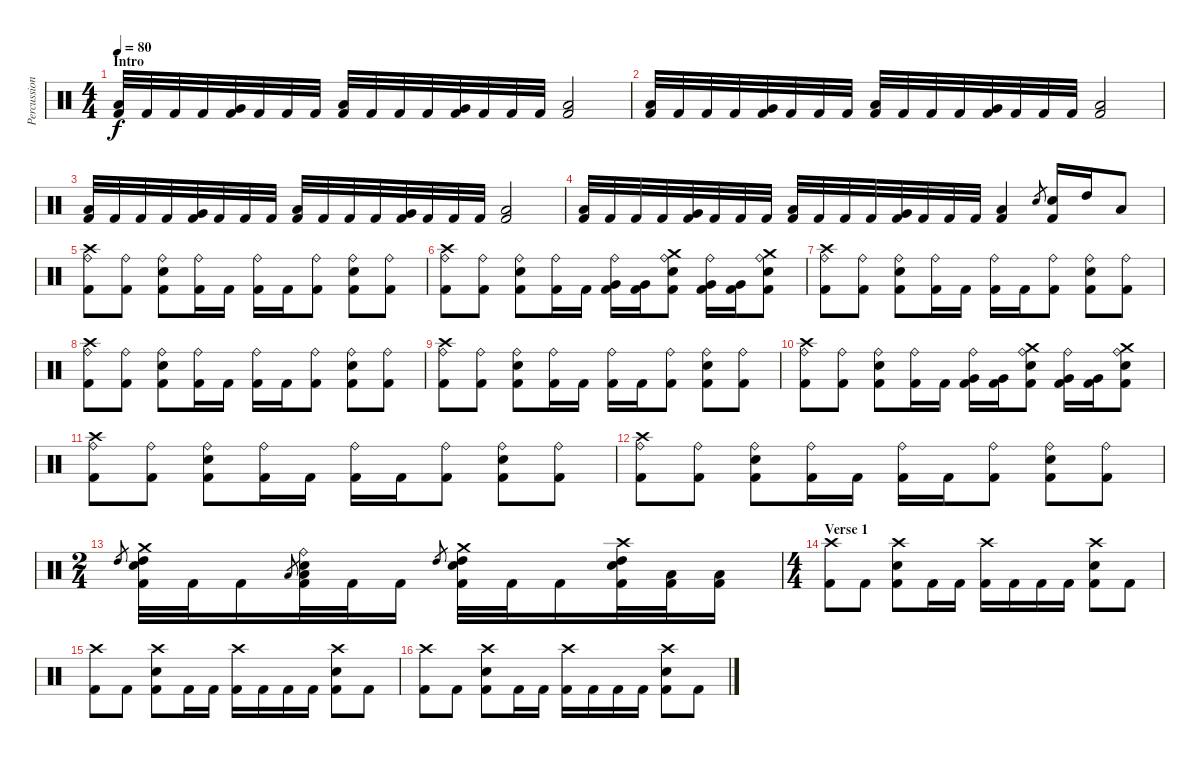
\track ("Percussion" "Percussion") {instrument percussion}
\staff {score}
\articulation defaults
\ts (4 4)
\section ("" "Intro")
\tempo 80
\clef neutral
\ks c
("Low Tom (hit)" "Kick (hit) 2").32{dy f} "Kick (hit) 2".32 "Kick (hit) 2".32 "Kick (hit) 2".32 ("Very Low Tom (hit)" "Kick (hit) 2").32 "Kick (hit) 2".32 "Kick (hit) 2".32 "Kick (hit) 2".32 ("Low Tom (hit)" "Kick (hit) 2").32 "Kick (hit) 2".32 "Kick (hit) 2".32 "Kick (hit) 2".32 ("Very Low Tom (hit)" "Kick (hit) 2").32 "Kick (hit) 2".32 "Kick (hit) 2".32 "Kick (hit) 2".32 ("Low Tom (hit)" "Kick (hit) 2").2 |
("Low Tom (hit)" "Kick (hit) 2").32 "Kick (hit) 2".32 "Kick (hit) 2".32 "Kick (hit) 2".32 ("Very Low Tom (hit)" "Kick (hit) 2").32 "Kick (hit) 2".32 "Kick (hit) 2".32 "Kick (hit) 2".32 ("Low Tom (hit)" "Kick (hit) 2").32 "Kick (hit) 2".32 "Kick (hit) 2".32 "Kick (hit) 2".32 ("Very Low Tom (hit)" "Kick (hit) 2").32 "Kick (hit) 2".32 "Kick (hit) 2".32 "Kick (hit) 2".32 ("Low Tom (hit)" "Kick (hit) 2").2 |
("Low Tom (hit)" "Kick (hit) 2").32 "Kick (hit) 2".32 "Kick (hit) 2".32 "Kick (hit) 2".32 ("Very Low Tom (hit)" "Kick (hit) 2").32 "Kick (hit) 2".32 "Kick (hit) 2".32 "Kick (hit) 2".32 ("Low Tom (hit)" "Kick (hit) 2").32 "Kick (hit) 2".32 "Kick (hit) 2".32 "Kick (hit) 2".32 ("Very Low Tom (hit)" "Kick (hit) 2").32 "Kick (hit) 2".32 "Kick (hit) 2".32 "Kick (hit) 2".32 ("Low Tom (hit)" "Kick (hit) 2").2 |
("Low Tom (hit)" "Kick (hit) 2").32 "Kick (hit) 2".32 "Kick (hit) 2".32 "Kick (hit) 2".32 ("Very Low Tom (hit)" "Kick (hit) 2").32 "Kick (hit) 2".32 "Kick (hit) 2".32 "Kick (hit) 2".32 ("Low Tom (hit)" "Kick (hit) 2").32 "Kick (hit) 2".32 "Kick (hit) 2".32 "Kick (hit) 2".32 ("Very Low Tom (hit)" "Kick (hit) 2").32 "Kick (hit) 2".32 "Kick (hit) 2".32 "Kick (hit) 2".32 ("Low Tom (hit)" "Kick (hit) 2").4 "Electric Snare (hit)".8{gr} ("Electric Snare (hit)" "Kick (hit) 2").16 "High Tom (hit)".16 "Low Tom (hit)".8 |
("Crash high (hit)" "Ride (bell)" "Kick (hit) 2").8 ("Ride (bell)" "Kick (hit) 2").8 ("Ride (bell)" "Electric Snare (hit)" "Kick (hit) 2").8 ("Ride (bell)" "Kick (hit) 2").16 "Kick (hit) 2".16 ("Ride (bell)" "Kick (hit) 2").16 "Kick (hit) 2".16 ("Ride (bell)" "Kick (hit) 2").8 ("Ride (bell)" "Electric Snare (hit)" "Kick (hit) 2").8 ("Ride (bell)" "Kick (hit) 2").8 |
("Crash high (hit)" "Ride (bell)" "Kick (hit) 2").8 ("Ride (bell)" "Kick (hit) 2").8 ("Ride (bell)" "Electric Snare (hit)" "Kick (hit) 2").8 ("Ride (bell)" "Kick (hit) 2").16 "Kick (hit) 2".16 ("Ride (bell)" "Very Low Tom (hit)" "Kick (hit) 2").16 ("Very Low Tom (hit)" "Kick (hit) 2").16 ("Crash medium (hit)" "Ride (bell)" "Electric Snare (hit)" "Kick (hit) 2").8 ("Ride (bell)" "Very Low Tom (hit)" "Kick (hit) 2").16 ("Very Low Tom (hit)" "Kick (hit) 2").16 ("Crash medium (hit)" "Ride (bell)" "Electric Snare (hit)" "Kick (hit) 2").8 |
("Crash high (hit)" "Ride (bell)" "Kick (hit) 2").8 ("Ride (bell)" "Kick (hit) 2").8 ("Ride (bell)" "Electric Snare (hit)" "Kick (hit) 2").8 ("Ride (bell)" "Kick (hit) 2").16 "Kick (hit) 2".16 ("Ride (bell)" "Kick (hit) 2").16 "Kick (hit) 2".16 ("Ride (bell)" "Kick (hit) 2").8 ("Ride (bell)" "Electric Snare (hit)" "Kick (hit) 2").8 ("Ride (bell)" "Kick (hit) 2").8 |
("Crash high (hit)" "Ride (bell)" "Kick (hit) 2").8 ("Ride (bell)" "Kick (hit) 2").8 ("Ride (bell)" "Electric Snare (hit)" "Kick (hit) 2").8 ("Ride (bell)" "Kick (hit) 2").16 "Kick (hit) 2".16 ("Ride (bell)" "Kick (hit) 2").16 "Kick (hit) 2".16 ("Ride (bell)" "Kick (hit) 2").8 ("Ride (bell)" "Electric Snare (hit)" "Kick (hit) 2").8 ("Ride (bell)" "Kick (hit) 2").8 |
("Crash high (hit)" "Ride (bell)" "Kick (hit) 2").8 ("Ride (bell)" "Kick (hit) 2").8 ("Ride (bell)" "Electric Snare (hit)" "Kick (hit) 2").8 ("Ride (bell)" "Kick (hit) 2").16 "Kick (hit) 2".16 ("Ride (bell)" "Kick (hit) 2").16 "Kick (hit) 2".16 ("Ride (bell)" "Kick (hit) 2").8 ("Ride (bell)" "Electric Snare (hit)" "Kick (hit) 2").8 ("Ride (bell)" "Kick (hit) 2").8 |
("Crash high (hit)" "Ride (bell)" "Kick (hit) 2").8 ("Ride (bell)" "Kick (hit) 2").8 ("Ride (bell)" "Electric Snare (hit)" "Kick (hit) 2").8 ("Ride (bell)" "Kick (hit) 2").16 "Kick (hit) 2".16 ("Ride (bell)" "Very Low Tom (hit)" "Kick (hit) 2").16 ("Very Low Tom (hit)" "Kick (hit) 2").16 ("Crash medium (hit)" "Ride (bell)" "Electric Snare (hit)" "Kick (hit) 2").8 ("Ride (bell)" "Very Low Tom (hit)" "Kick (hit) 2").16 ("Very Low Tom (hit)" "Kick (hit) 2").16 ("Crash medium (hit)" "Ride (bell)" "Electric Snare (hit)" "Kick (hit) 2").8 |
("Crash high (hit)" "Ride (bell)" "Kick (hit) 2").8 ("Ride (bell)" "Kick (hit) 2").8 ("Ride (bell)" "Electric Snare (hit)" "Kick (hit) 2").8 ("Ride (bell)" "Kick (hit) 2").16 "Kick (hit) 2".16 ("Ride (bell)" "Kick (hit) 2").16 "Kick (hit) 2".16 ("Ride (bell)" "Kick (hit) 2").8 ("Ride (bell)" "Electric Snare (hit)" "Kick (hit) 2").8 ("Ride (bell)" "Kick (hit) 2").8 |
("Crash high (hit)" "Ride (bell)" "Kick (hit) 2").8 ("Ride (bell)" "Kick (hit) 2").8 ("Ride (bell)" "Electric Snare (hit)" "Kick (hit) 2").8 ("Ride (bell)" "Kick (hit) 2").16 "Kick (hit) 2".16 ("Ride (bell)" "Kick (hit) 2").16 "Kick (hit) 2".16 ("Ride (bell)" "Kick (hit) 2").8 ("Ride (bell)" "Electric Snare (hit)" "Kick (hit) 2").8 ("Ride (bell)" "Kick (hit) 2").8 |
\ts (2 4)
"High Tom (hit)".8{gr} ("Crash medium (hit)" "High Tom (hit)" "Electric Snare (hit)" "Kick (hit) 2").32 "Kick (hit) 2".32 "Kick (hit) 2".16 "Low Tom (hit)".8{gr} ("Ride (bell)" "Low Tom (hit)" "Electric Snare (hit)" "Kick (hit) 2").32 "Kick (hit) 2".32 "Kick (hit) 2".16 "High Tom (hit)".8{gr} ("Crash medium (hit)" "High Tom (hit)" "Electric Snare (hit)" "Kick (hit) 2").32 "Kick (hit) 2".32 "Kick (hit) 2".16 ("Crash high (hit)" "High Tom (hit)" "Electric Snare (hit)" "Kick (hit) 2").32 ("Low Tom (hit)" "Kick (hit) 2").32 ("Low Tom (hit)" "Kick (hit) 2").16 |
\ts (4 4)
\section ("" "Verse 1")
("Crash high (hit)" "Kick (hit) 2").8 "Kick (hit) 2".8 ("Crash high (hit)" "Electric Snare (hit)" "Kick (hit) 2").8 "Kick (hit) 2".16 "Kick (hit) 2".16 ("Crash high (hit)" "Kick (hit) 2").16 "Kick (hit) 2".16 "Kick (hit) 2".16 "Kick (hit) 2".16 ("Crash high (hit)" "Electric Snare (hit)" "Kick (hit) 2").8 "Kick (hit) 2".8 |
("Crash high (hit)" "Kick (hit) 2").8 "Kick (hit) 2".8 ("Crash high (hit)" "Electric Snare (hit)" "Kick (hit) 2").8 "Kick (hit) 2".16 "Kick (hit) 2".16 ("Crash high (hit)" "Kick (hit) 2").16 "Kick (hit) 2".16 "Kick (hit) 2".16 "Kick (hit) 2".16 ("Crash high (hit)" "Electric Snare (hit)" "Kick (hit) 2").8 "Kick (hit) 2".8 |
("Crash high (hit)" "Kick (hit) 2").8 "Kick (hit) 2".8 ("Crash high (hit)" "Electric Snare (hit)" "Kick (hit) 2").8 "Kick (hit) 2".16 "Kick (hit) 2".16 ("Crash high (hit)" "Kick (hit) 2").16 "Kick (hit) 2".16 "Kick (hit) 2".16 "Kick (hit) 2".16 ("Crash high (hit)" "Electric Snare (hit)" "Kick (hit) 2").8 "Kick (hit) 2".8
